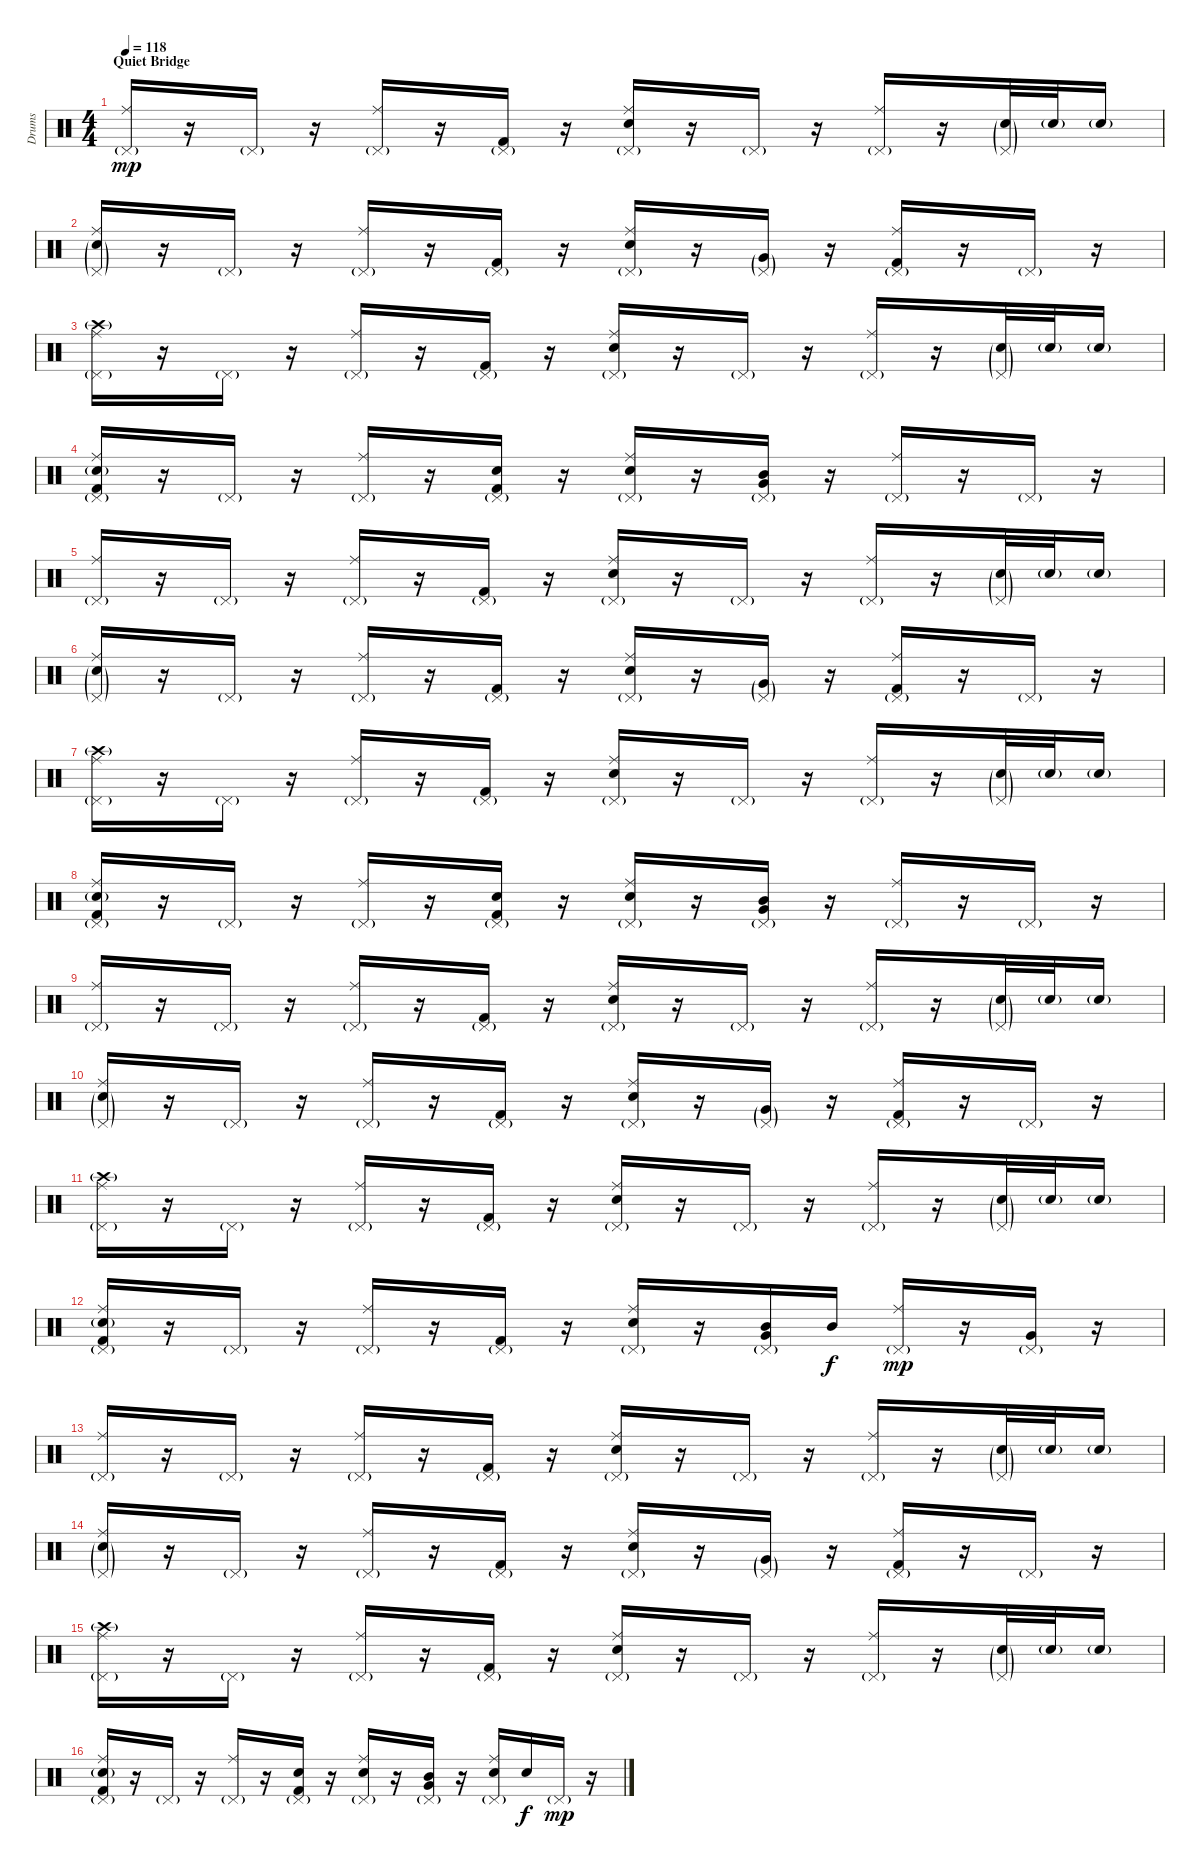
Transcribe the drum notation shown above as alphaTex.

\track ("Drums" "Drums") {instrument percussion}
\staff {score}
\articulation defaults
\ts (4 4)
\section ("" "Quiet Bridge")
\tempo 118
\clef neutral
\ks c
("Ride (middle)" "Pedal Hi-Hat (hit)"{g}).16{dy mp} r.16 "Pedal Hi-Hat (hit)"{g}.16 r.16 ("Ride (middle)" "Pedal Hi-Hat (hit)"{g}).16 r.16 ("Kick (hit) 2" "Pedal Hi-Hat (hit)"{g}).16 r.16 ("Ride (middle)" "Electric Snare (hit)" "Pedal Hi-Hat (hit)"{g}).16 r.16 "Pedal Hi-Hat (hit)"{g}.16 r.16 ("Ride (middle)" "Pedal Hi-Hat (hit)"{g}).16 r.16 ("Electric Snare (hit)"{g} "Pedal Hi-Hat (hit)"{g}).32 "Electric Snare (hit)"{g}.32 "Electric Snare (hit)"{g}.16 |
("Ride (middle)" "Electric Snare (hit)"{g} "Pedal Hi-Hat (hit)"{g}).16 r.16 "Pedal Hi-Hat (hit)"{g}.16 r.16 ("Ride (middle)" "Pedal Hi-Hat (hit)"{g}).16 r.16 ("Kick (hit) 2" "Pedal Hi-Hat (hit)"{g}).16 r.16 ("Ride (middle)" "Electric Snare (hit)" "Pedal Hi-Hat (hit)"{g}).16 r.16 ("Very Low Tom (hit)"{g} "Pedal Hi-Hat (hit)"{g}).16 r.16 ("Ride (middle)" "Kick (hit) 2" "Pedal Hi-Hat (hit)"{g}).16 r.16 "Pedal Hi-Hat (hit)"{g}.16 r.16 |
("Ride (middle)" "Crash high (hit)"{g} "Pedal Hi-Hat (hit)"{g}).16 r.16 "Pedal Hi-Hat (hit)"{g}.16 r.16 ("Ride (middle)" "Pedal Hi-Hat (hit)"{g}).16 r.16 ("Kick (hit) 2" "Pedal Hi-Hat (hit)"{g}).16 r.16 ("Ride (middle)" "Electric Snare (hit)" "Pedal Hi-Hat (hit)"{g}).16 r.16 "Pedal Hi-Hat (hit)"{g}.16 r.16 ("Ride (middle)" "Pedal Hi-Hat (hit)"{g}).16 r.16 ("Electric Snare (hit)"{g} "Pedal Hi-Hat (hit)"{g}).32 "Electric Snare (hit)"{g}.32 "Electric Snare (hit)"{g}.16 |
("Ride (middle)" "Electric Snare (hit)"{g} "Kick (hit) 2" "Pedal Hi-Hat (hit)"{g}).16 r.16 "Pedal Hi-Hat (hit)"{g}.16 r.16 ("Ride (middle)" "Pedal Hi-Hat (hit)"{g}).16 r.16 ("Electric Snare (hit)" "Kick (hit) 2" "Pedal Hi-Hat (hit)"{g}).16 r.16 ("Ride (middle)" "Electric Snare (hit)" "Pedal Hi-Hat (hit)"{g}).16 r.16 ("Mid Tom (hit)" "Very Low Tom (hit)" "Pedal Hi-Hat (hit)"{g}).16 r.16 ("Ride (middle)" "Pedal Hi-Hat (hit)"{g}).16 r.16 "Pedal Hi-Hat (hit)"{g}.16 r.16 |
("Ride (middle)" "Pedal Hi-Hat (hit)"{g}).16 r.16 "Pedal Hi-Hat (hit)"{g}.16 r.16 ("Ride (middle)" "Pedal Hi-Hat (hit)"{g}).16 r.16 ("Kick (hit) 2" "Pedal Hi-Hat (hit)"{g}).16 r.16 ("Ride (middle)" "Electric Snare (hit)" "Pedal Hi-Hat (hit)"{g}).16 r.16 "Pedal Hi-Hat (hit)"{g}.16 r.16 ("Ride (middle)" "Pedal Hi-Hat (hit)"{g}).16 r.16 ("Electric Snare (hit)"{g} "Pedal Hi-Hat (hit)"{g}).32 "Electric Snare (hit)"{g}.32 "Electric Snare (hit)"{g}.16 |
("Ride (middle)" "Electric Snare (hit)"{g} "Pedal Hi-Hat (hit)"{g}).16 r.16 "Pedal Hi-Hat (hit)"{g}.16 r.16 ("Ride (middle)" "Pedal Hi-Hat (hit)"{g}).16 r.16 ("Kick (hit) 2" "Pedal Hi-Hat (hit)"{g}).16 r.16 ("Ride (middle)" "Electric Snare (hit)" "Pedal Hi-Hat (hit)"{g}).16 r.16 ("Very Low Tom (hit)"{g} "Pedal Hi-Hat (hit)"{g}).16 r.16 ("Ride (middle)" "Kick (hit) 2" "Pedal Hi-Hat (hit)"{g}).16 r.16 "Pedal Hi-Hat (hit)"{g}.16 r.16 |
("Ride (middle)" "Crash high (hit)"{g} "Pedal Hi-Hat (hit)"{g}).16 r.16 "Pedal Hi-Hat (hit)"{g}.16 r.16 ("Ride (middle)" "Pedal Hi-Hat (hit)"{g}).16 r.16 ("Kick (hit) 2" "Pedal Hi-Hat (hit)"{g}).16 r.16 ("Ride (middle)" "Electric Snare (hit)" "Pedal Hi-Hat (hit)"{g}).16 r.16 "Pedal Hi-Hat (hit)"{g}.16 r.16 ("Ride (middle)" "Pedal Hi-Hat (hit)"{g}).16 r.16 ("Electric Snare (hit)"{g} "Pedal Hi-Hat (hit)"{g}).32 "Electric Snare (hit)"{g}.32 "Electric Snare (hit)"{g}.16 |
("Ride (middle)" "Electric Snare (hit)"{g} "Kick (hit) 2" "Pedal Hi-Hat (hit)"{g}).16 r.16 "Pedal Hi-Hat (hit)"{g}.16 r.16 ("Ride (middle)" "Pedal Hi-Hat (hit)"{g}).16 r.16 ("Electric Snare (hit)" "Kick (hit) 2" "Pedal Hi-Hat (hit)"{g}).16 r.16 ("Ride (middle)" "Electric Snare (hit)" "Pedal Hi-Hat (hit)"{g}).16 r.16 ("Mid Tom (hit)" "Very Low Tom (hit)" "Pedal Hi-Hat (hit)"{g}).16 r.16 ("Ride (middle)" "Pedal Hi-Hat (hit)"{g}).16 r.16 "Pedal Hi-Hat (hit)"{g}.16 r.16 |
("Ride (middle)" "Pedal Hi-Hat (hit)"{g}).16 r.16 "Pedal Hi-Hat (hit)"{g}.16 r.16 ("Ride (middle)" "Pedal Hi-Hat (hit)"{g}).16 r.16 ("Kick (hit) 2" "Pedal Hi-Hat (hit)"{g}).16 r.16 ("Ride (middle)" "Electric Snare (hit)" "Pedal Hi-Hat (hit)"{g}).16 r.16 "Pedal Hi-Hat (hit)"{g}.16 r.16 ("Ride (middle)" "Pedal Hi-Hat (hit)"{g}).16 r.16 ("Electric Snare (hit)"{g} "Pedal Hi-Hat (hit)"{g}).32 "Electric Snare (hit)"{g}.32 "Electric Snare (hit)"{g}.16 |
("Ride (middle)" "Electric Snare (hit)"{g} "Pedal Hi-Hat (hit)"{g}).16 r.16 "Pedal Hi-Hat (hit)"{g}.16 r.16 ("Ride (middle)" "Pedal Hi-Hat (hit)"{g}).16 r.16 ("Kick (hit) 2" "Pedal Hi-Hat (hit)"{g}).16 r.16 ("Ride (middle)" "Electric Snare (hit)" "Pedal Hi-Hat (hit)"{g}).16 r.16 ("Very Low Tom (hit)"{g} "Pedal Hi-Hat (hit)"{g}).16 r.16 ("Ride (middle)" "Kick (hit) 2" "Pedal Hi-Hat (hit)"{g}).16 r.16 "Pedal Hi-Hat (hit)"{g}.16 r.16 |
("Ride (middle)" "Crash high (hit)"{g} "Pedal Hi-Hat (hit)"{g}).16 r.16 "Pedal Hi-Hat (hit)"{g}.16 r.16 ("Ride (middle)" "Pedal Hi-Hat (hit)"{g}).16 r.16 ("Kick (hit) 2" "Pedal Hi-Hat (hit)"{g}).16 r.16 ("Ride (middle)" "Electric Snare (hit)" "Pedal Hi-Hat (hit)"{g}).16 r.16 "Pedal Hi-Hat (hit)"{g}.16 r.16 ("Ride (middle)" "Pedal Hi-Hat (hit)"{g}).16 r.16 ("Electric Snare (hit)"{g} "Pedal Hi-Hat (hit)"{g}).32 "Electric Snare (hit)"{g}.32 "Electric Snare (hit)"{g}.16 |
("Ride (middle)" "Electric Snare (hit)"{g} "Kick (hit) 2" "Pedal Hi-Hat (hit)"{g}).16 r.16 "Pedal Hi-Hat (hit)"{g}.16 r.16 ("Ride (middle)" "Pedal Hi-Hat (hit)"{g}).16 r.16 ("Kick (hit) 2" "Pedal Hi-Hat (hit)"{g}).16 r.16 ("Ride (middle)" "Electric Snare (hit)" "Pedal Hi-Hat (hit)"{g}).16 r.16 ("Mid Tom (hit)" "Very Low Tom (hit)" "Pedal Hi-Hat (hit)"{g}).16 "Mid Tom (hit)".16{dy f} ("Ride (middle)" "Pedal Hi-Hat (hit)"{g}).16{dy mp} r.16 ("Very Low Tom (hit)" "Pedal Hi-Hat (hit)"{g}).16 r.16 |
("Ride (middle)" "Pedal Hi-Hat (hit)"{g}).16 r.16 "Pedal Hi-Hat (hit)"{g}.16 r.16 ("Ride (middle)" "Pedal Hi-Hat (hit)"{g}).16 r.16 ("Kick (hit) 2" "Pedal Hi-Hat (hit)"{g}).16 r.16 ("Ride (middle)" "Electric Snare (hit)" "Pedal Hi-Hat (hit)"{g}).16 r.16 "Pedal Hi-Hat (hit)"{g}.16 r.16 ("Ride (middle)" "Pedal Hi-Hat (hit)"{g}).16 r.16 ("Electric Snare (hit)"{g} "Pedal Hi-Hat (hit)"{g}).32 "Electric Snare (hit)"{g}.32 "Electric Snare (hit)"{g}.16 |
("Ride (middle)" "Electric Snare (hit)"{g} "Pedal Hi-Hat (hit)"{g}).16 r.16 "Pedal Hi-Hat (hit)"{g}.16 r.16 ("Ride (middle)" "Pedal Hi-Hat (hit)"{g}).16 r.16 ("Kick (hit) 2" "Pedal Hi-Hat (hit)"{g}).16 r.16 ("Ride (middle)" "Electric Snare (hit)" "Pedal Hi-Hat (hit)"{g}).16 r.16 ("Very Low Tom (hit)"{g} "Pedal Hi-Hat (hit)"{g}).16 r.16 ("Ride (middle)" "Kick (hit) 2" "Pedal Hi-Hat (hit)"{g}).16 r.16 "Pedal Hi-Hat (hit)"{g}.16 r.16 |
("Ride (middle)" "Crash high (hit)"{g} "Pedal Hi-Hat (hit)"{g}).16 r.16 "Pedal Hi-Hat (hit)"{g}.16 r.16 ("Ride (middle)" "Pedal Hi-Hat (hit)"{g}).16 r.16 ("Kick (hit) 2" "Pedal Hi-Hat (hit)"{g}).16 r.16 ("Ride (middle)" "Electric Snare (hit)" "Pedal Hi-Hat (hit)"{g}).16 r.16 "Pedal Hi-Hat (hit)"{g}.16 r.16 ("Ride (middle)" "Pedal Hi-Hat (hit)"{g}).16 r.16 ("Electric Snare (hit)"{g} "Pedal Hi-Hat (hit)"{g}).32 "Electric Snare (hit)"{g}.32 "Electric Snare (hit)"{g}.16 |
("Ride (middle)" "Electric Snare (hit)"{g} "Kick (hit) 2" "Pedal Hi-Hat (hit)"{g}).16 r.16 "Pedal Hi-Hat (hit)"{g}.16 r.16 ("Ride (middle)" "Pedal Hi-Hat (hit)"{g}).16 r.16 ("Electric Snare (hit)" "Kick (hit) 2" "Pedal Hi-Hat (hit)"{g}).16 r.16 ("Ride (middle)" "Electric Snare (hit)" "Pedal Hi-Hat (hit)"{g}).16 r.16 ("Mid Tom (hit)" "Very Low Tom (hit)" "Pedal Hi-Hat (hit)"{g}).16 r.16 ("Ride (middle)" "Electric Snare (hit)" "Pedal Hi-Hat (hit)"{g}).16 "Electric Snare (hit)".16{dy f} "Pedal Hi-Hat (hit)"{g}.16{dy mp} r.16
